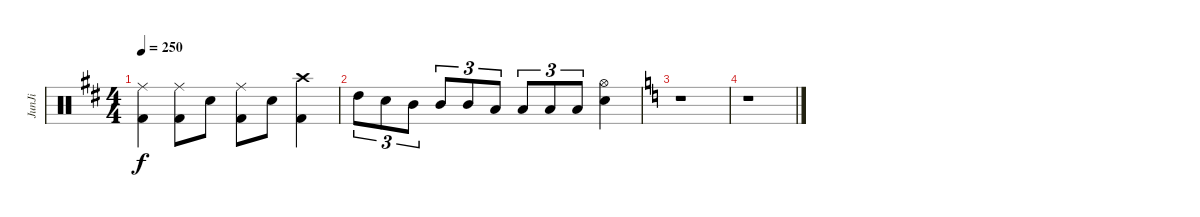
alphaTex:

\track ("JunJi" "JunJi") {instrument percussion}
\staff {score}
\articulation defaults
\ts (4 4)
\tempo 250
\clef neutral
\ks d
("Ride (middle)" "Kick (hit) 2").4{dy f} ("Ride (middle)" "Kick (hit) 2").8 "Snare (hit) 2".8 ("Ride (middle)" "Kick (hit) 2").8 "Snare (hit) 2".8 ("Crash high (hit)" "Kick (hit) 2").4 |
"High Tom (hit)".8{tu (3 2)} "Snare (hit) 2".8{tu (3 2)} "Mid Tom (hit)".8{tu (3 2)} "Mid Tom (hit)".8{tu (3 2)} "Mid Tom (hit)".8{tu (3 2)} "Low Tom (hit)".8{tu (3 2)} "Low Tom (hit)".8{tu (3 2)} "Low Tom (hit)".8{tu (3 2)} "Low Tom (hit)".8{tu (3 2)} ("Hi-Hat (open)" "Snare (hit) 2").4 |
\ks c
r.1 |
r.1
